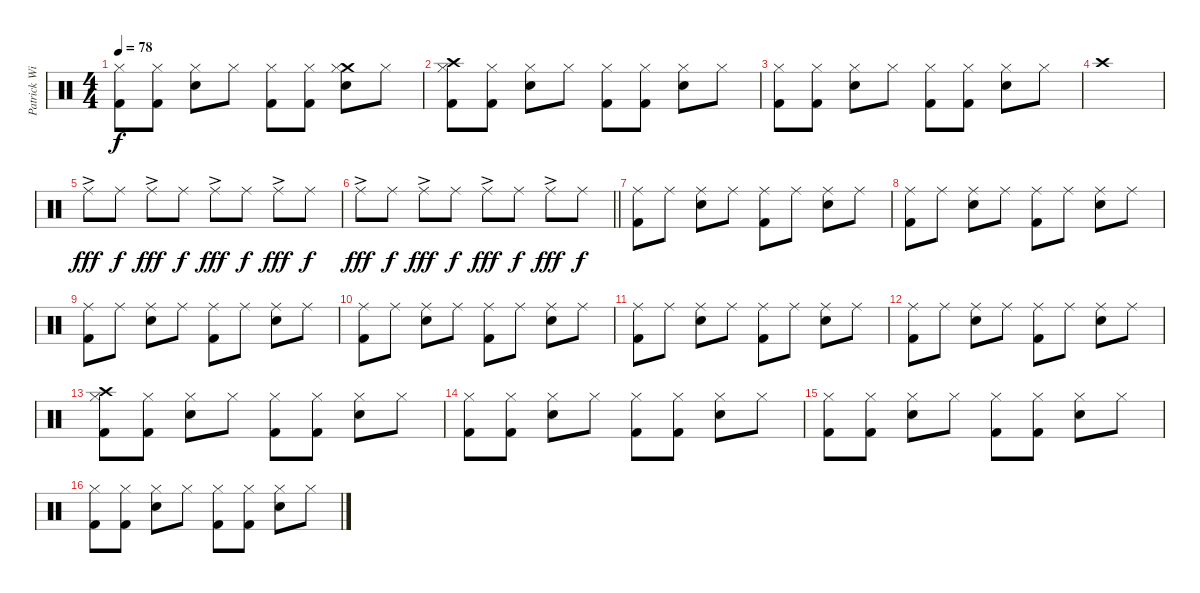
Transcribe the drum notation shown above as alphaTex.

\track ("Patrick Wilson" "Patrick Wi") {instrument percussion}
\staff {score}
\articulation defaults
\ts (4 4)
\tempo 78
\clef neutral
\ks c
("Kick (hit) 2" "Hi-Hat (closed)").8{dy f} ("Kick (hit) 2" "Hi-Hat (closed)").8 ("Snare (hit) 2" "Hi-Hat (closed)").8 "Hi-Hat (closed)".8 ("Kick (hit) 2" "Hi-Hat (closed)").8 ("Kick (hit) 2" "Hi-Hat (closed)").8 ("Crash medium (hit)" "Snare (hit) 2" "Hi-Hat (closed)").8 "Hi-Hat (closed)".8 |
("Crash high (hit)" "Kick (hit) 2" "Hi-Hat (closed)").8 ("Kick (hit) 2" "Hi-Hat (closed)").8 ("Snare (hit) 2" "Hi-Hat (closed)").8 "Hi-Hat (closed)".8 ("Kick (hit) 2" "Hi-Hat (closed)").8 ("Kick (hit) 2" "Hi-Hat (closed)").8 ("Snare (hit) 2" "Hi-Hat (closed)").8 "Hi-Hat (closed)".8 |
("Kick (hit) 2" "Hi-Hat (closed)").8 ("Kick (hit) 2" "Hi-Hat (closed)").8 ("Snare (hit) 2" "Hi-Hat (closed)").8 "Hi-Hat (closed)".8 ("Kick (hit) 2" "Hi-Hat (closed)").8 ("Kick (hit) 2" "Hi-Hat (closed)").8 ("Snare (hit) 2" "Hi-Hat (closed)").8 "Hi-Hat (closed)".8 |
"Crash high (hit)".1 |
"Ride (middle)"{ac}.8{dy fff} "Ride (middle)".8{dy f} "Ride (middle)"{ac}.8{dy fff} "Ride (middle)".8{dy f} "Ride (middle)"{ac}.8{dy fff} "Ride (middle)".8{dy f} "Ride (middle)"{ac}.8{dy fff} "Ride (middle)".8{dy f} |
\barLineRight lightlight "Ride (middle)"{ac}.8{dy fff} "Ride (middle)".8{dy f} "Ride (middle)"{ac}.8{dy fff} "Ride (middle)".8{dy f} "Ride (middle)"{ac}.8{dy fff} "Ride (middle)".8{dy f} "Ride (middle)"{ac}.8{dy fff} "Ride (middle)".8{dy f}
|
("Ride (middle)" "Kick (hit) 2").8 "Ride (middle)".8 ("Ride (middle)" "Snare (hit) 2").8 "Ride (middle)".8 ("Ride (middle)" "Kick (hit) 2").8 "Ride (middle)".8 ("Ride (middle)" "Snare (hit) 2").8 "Ride (middle)".8 |
("Ride (middle)" "Kick (hit) 2").8 "Ride (middle)".8 ("Ride (middle)" "Snare (hit) 2").8 "Ride (middle)".8 ("Ride (middle)" "Kick (hit) 2").8 "Ride (middle)".8 ("Ride (middle)" "Snare (hit) 2").8 "Ride (middle)".8 |
("Ride (middle)" "Kick (hit) 2").8 "Ride (middle)".8 ("Ride (middle)" "Snare (hit) 2").8 "Ride (middle)".8 ("Ride (middle)" "Kick (hit) 2").8 "Ride (middle)".8 ("Ride (middle)" "Snare (hit) 2").8 "Ride (middle)".8 |
("Ride (middle)" "Kick (hit) 2").8 "Ride (middle)".8 ("Ride (middle)" "Snare (hit) 2").8 "Ride (middle)".8 ("Ride (middle)" "Kick (hit) 2").8 "Ride (middle)".8 ("Ride (middle)" "Snare (hit) 2").8 "Ride (middle)".8 |
("Ride (middle)" "Kick (hit) 2").8 "Ride (middle)".8 ("Ride (middle)" "Snare (hit) 2").8 "Ride (middle)".8 ("Ride (middle)" "Kick (hit) 2").8 "Ride (middle)".8 ("Ride (middle)" "Snare (hit) 2").8 "Ride (middle)".8 |
("Ride (middle)" "Kick (hit) 2").8 "Ride (middle)".8 ("Ride (middle)" "Snare (hit) 2").8 "Ride (middle)".8 ("Ride (middle)" "Kick (hit) 2").8 "Ride (middle)".8 ("Ride (middle)" "Snare (hit) 2").8 "Ride (middle)".8 |
("Crash high (hit)" "Kick (hit) 2" "Hi-Hat (closed)").8 ("Kick (hit) 2" "Hi-Hat (closed)").8 ("Snare (hit) 2" "Hi-Hat (closed)").8 "Hi-Hat (closed)".8 ("Kick (hit) 2" "Hi-Hat (closed)").8 ("Kick (hit) 2" "Hi-Hat (closed)").8 ("Snare (hit) 2" "Hi-Hat (closed)").8 "Hi-Hat (closed)".8 |
("Kick (hit) 2" "Hi-Hat (closed)").8 ("Kick (hit) 2" "Hi-Hat (closed)").8 ("Snare (hit) 2" "Hi-Hat (closed)").8 "Hi-Hat (closed)".8 ("Kick (hit) 2" "Hi-Hat (closed)").8 ("Kick (hit) 2" "Hi-Hat (closed)").8 ("Snare (hit) 2" "Hi-Hat (closed)").8 "Hi-Hat (closed)".8 |
("Kick (hit) 2" "Hi-Hat (closed)").8 ("Kick (hit) 2" "Hi-Hat (closed)").8 ("Snare (hit) 2" "Hi-Hat (closed)").8 "Hi-Hat (closed)".8 ("Kick (hit) 2" "Hi-Hat (closed)").8 ("Kick (hit) 2" "Hi-Hat (closed)").8 ("Snare (hit) 2" "Hi-Hat (closed)").8 "Hi-Hat (closed)".8 |
("Kick (hit) 2" "Hi-Hat (closed)").8 ("Kick (hit) 2" "Hi-Hat (closed)").8 ("Snare (hit) 2" "Hi-Hat (closed)").8 "Hi-Hat (closed)".8 ("Kick (hit) 2" "Hi-Hat (closed)").8 ("Kick (hit) 2" "Hi-Hat (closed)").8 ("Snare (hit) 2" "Hi-Hat (closed)").8 "Hi-Hat (closed)".8
